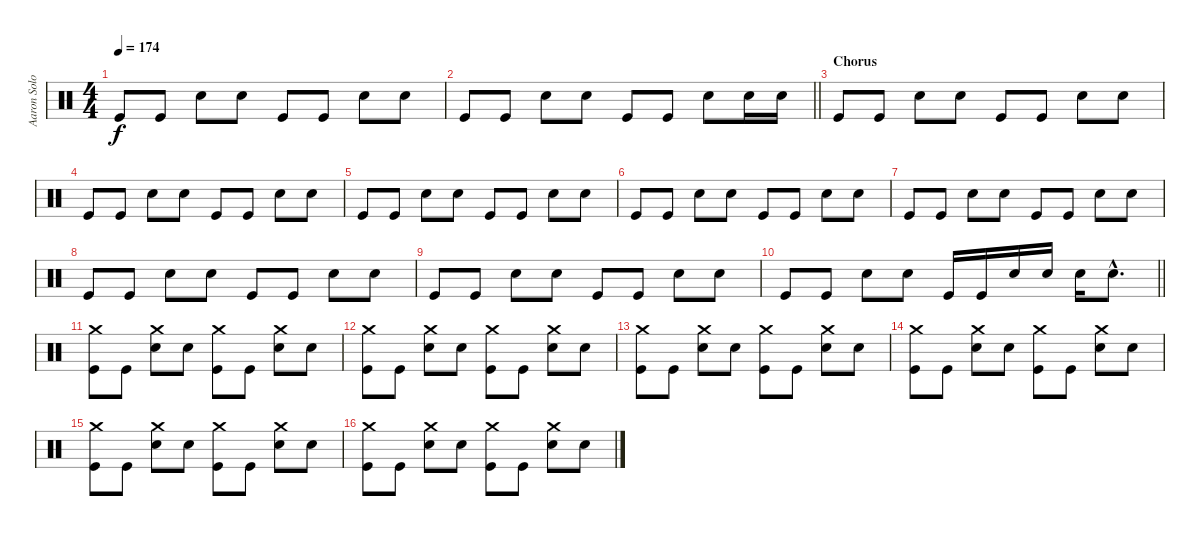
\track ("Aaron Solowoniuk" "Aaron Solo") {instrument percussion}
\staff {score}
\articulation defaults
\ts (4 4)
\tempo 174
\clef neutral
\ks c "Kick (hit)".8{dy f} "Kick (hit)".8 "Snare (hit) 2".8 "Snare (hit) 2".8 "Kick (hit)".8 "Kick (hit)".8 "Snare (hit) 2".8 "Snare (hit) 2".8
|
\barLineRight lightlight "Kick (hit)".8 "Kick (hit)".8 "Snare (hit) 2".8 "Snare (hit) 2".8 "Kick (hit)".8 "Kick (hit)".8 "Snare (hit) 2".8 "Snare (hit) 2".16 "Snare (hit) 2".16
|
\section ("" "Chorus")
"Kick (hit)".8 "Kick (hit)".8 "Snare (hit) 2".8 "Snare (hit) 2".8 "Kick (hit)".8 "Kick (hit)".8 "Snare (hit) 2".8 "Snare (hit) 2".8 |
"Kick (hit)".8 "Kick (hit)".8 "Snare (hit) 2".8 "Snare (hit) 2".8 "Kick (hit)".8 "Kick (hit)".8 "Snare (hit) 2".8 "Snare (hit) 2".8 |
"Kick (hit)".8 "Kick (hit)".8 "Snare (hit) 2".8 "Snare (hit) 2".8 "Kick (hit)".8 "Kick (hit)".8 "Snare (hit) 2".8 "Snare (hit) 2".8 |
"Kick (hit)".8 "Kick (hit)".8 "Snare (hit) 2".8 "Snare (hit) 2".8 "Kick (hit)".8 "Kick (hit)".8 "Snare (hit) 2".8 "Snare (hit) 2".8 |
"Kick (hit)".8 "Kick (hit)".8 "Snare (hit) 2".8 "Snare (hit) 2".8 "Kick (hit)".8 "Kick (hit)".8 "Snare (hit) 2".8 "Snare (hit) 2".8 |
"Kick (hit)".8 "Kick (hit)".8 "Snare (hit) 2".8 "Snare (hit) 2".8 "Kick (hit)".8 "Kick (hit)".8 "Snare (hit) 2".8 "Snare (hit) 2".8 |
"Kick (hit)".8 "Kick (hit)".8 "Snare (hit) 2".8 "Snare (hit) 2".8 "Kick (hit)".8 "Kick (hit)".8 "Snare (hit) 2".8 "Snare (hit) 2".8 |
\barLineRight lightlight "Kick (hit)".8 "Kick (hit)".8 "Snare (hit) 2".8 "Snare (hit) 2".8 "Kick (hit)".16 "Kick (hit)".16 "Snare (hit) 2".16 "Snare (hit) 2".16 "Snare (hit) 2".16 "Snare (hit) 2"{hac}.8{d}
|
("Kick (hit)" "Crash medium (hit)").8 "Kick (hit)".8 ("Snare (hit) 2" "Crash medium (hit)").8 "Snare (hit) 2".8 ("Kick (hit)" "Crash medium (hit)").8 "Kick (hit)".8 ("Snare (hit) 2" "Crash medium (hit)").8 "Snare (hit) 2".8 |
("Kick (hit)" "Crash medium (hit)").8 "Kick (hit)".8 ("Snare (hit) 2" "Crash medium (hit)").8 "Snare (hit) 2".8 ("Kick (hit)" "Crash medium (hit)").8 "Kick (hit)".8 ("Snare (hit) 2" "Crash medium (hit)").8 "Snare (hit) 2".8 |
("Kick (hit)" "Crash medium (hit)").8 "Kick (hit)".8 ("Snare (hit) 2" "Crash medium (hit)").8 "Snare (hit) 2".8 ("Kick (hit)" "Crash medium (hit)").8 "Kick (hit)".8 ("Snare (hit) 2" "Crash medium (hit)").8 "Snare (hit) 2".8 |
("Kick (hit)" "Crash medium (hit)").8 "Kick (hit)".8 ("Snare (hit) 2" "Crash medium (hit)").8 "Snare (hit) 2".8 ("Kick (hit)" "Crash medium (hit)").8 "Kick (hit)".8 ("Snare (hit) 2" "Crash medium (hit)").8 "Snare (hit) 2".8 |
("Kick (hit)" "Crash medium (hit)").8 "Kick (hit)".8 ("Snare (hit) 2" "Crash medium (hit)").8 "Snare (hit) 2".8 ("Kick (hit)" "Crash medium (hit)").8 "Kick (hit)".8 ("Snare (hit) 2" "Crash medium (hit)").8 "Snare (hit) 2".8 |
("Kick (hit)" "Crash medium (hit)").8 "Kick (hit)".8 ("Snare (hit) 2" "Crash medium (hit)").8 "Snare (hit) 2".8 ("Kick (hit)" "Crash medium (hit)").8 "Kick (hit)".8 ("Snare (hit) 2" "Crash medium (hit)").8 "Snare (hit) 2".8
